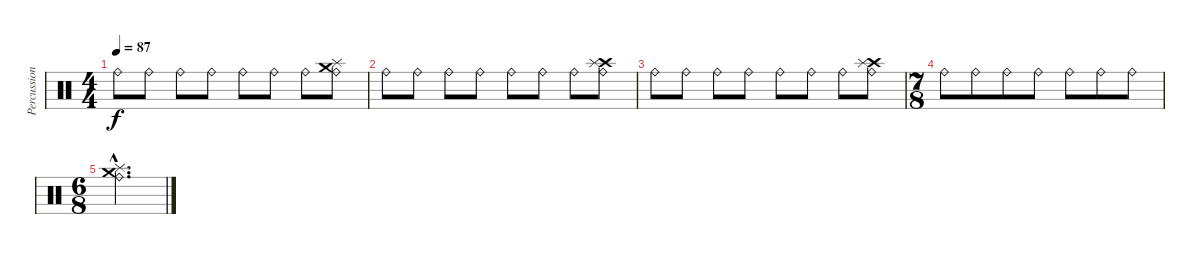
\track ("Percussion" "Percussion") {instrument percussion}
\staff {score}
\articulation defaults
\ts (4 4)
\tempo 87
\clef neutral
\ks c "Ride (bell)".8{dy f} "Ride (bell)".8 "Ride (bell)".8 "Ride (bell)".8 "Ride (bell)".8 "Ride (bell)".8 "Ride (bell)".8
("Crash medium (hit)" "Ride (bell)" "Splash (hit)").8 |
"Ride (bell)".8 "Ride (bell)".8 "Ride (bell)".8 "Ride (bell)".8 "Ride (bell)".8 "Ride (bell)".8 "Ride (bell)".8 ("Crash high (hit)" "Ride (bell)" "Splash (hit)").8 |
"Ride (bell)".8 "Ride (bell)".8 "Ride (bell)".8 "Ride (bell)".8 "Ride (bell)".8 "Ride (bell)".8 "Ride (bell)".8 ("Crash high (hit)" "Ride (bell)" "Splash (hit)").8 |
\ts (7 8)
"Ride (bell)".8 "Ride (bell)".8 "Ride (bell)".8 "Ride (bell)".8 "Ride (bell)".8 "Ride (bell)".8 "Ride (bell)".8 |
\ts (6 8)
("Crash medium (hit)"{hac} "Ride (bell)"{hac} "Splash (hit)"{hac}).2{d}
